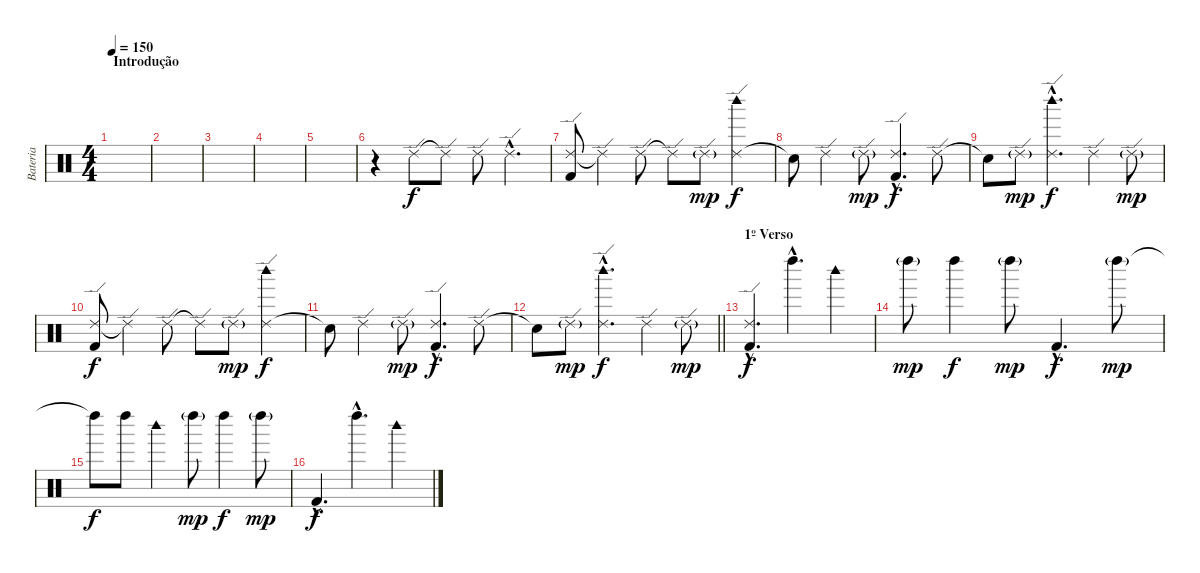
\track ("Bateria" "Bateria") {instrument percussion}
\staff {score}
\articulation defaults
\ts (4 4)
\section ("" "Introdução")
\tempo 150
\clef neutral
\ks c
|
|
|
|
|
r.4 "Ride (edge) 2".8 "Ride (edge) 2"{t}.8 "Ride (edge) 2".8 "Ride (edge) 2"{hac}.4{d} |
("Ride (edge) 2" "Kick (hit) 2").8 "Ride (edge) 2"{t}.4 "Ride (edge) 2".8 "Ride (edge) 2"{t}.8 "Ride (edge) 2"{g}.8{dy mp} ("Ride (edge) 2" "Woodblock high (hit)").4{dy f} |
"Snare (hit)"{t}.8 "Ride (edge) 2".4 "Ride (edge) 2"{g}.8{dy mp} ("Ride (edge) 2"{hac} "Kick (hit) 2"{hac}).4{d dy f} "Ride (edge) 2".8 |
"Snare (hit)"{t}.8 "Ride (edge) 2"{g}.8{dy mp} ("Ride (edge) 2"{hac} "Woodblock high (hit)"{hac}).4{d dy f} "Ride (edge) 2".4 "Ride (edge) 2"{g}.8{dy mp} |
("Ride (edge) 2" "Kick (hit) 2").8{dy f} "Ride (edge) 2"{t}.4 "Ride (edge) 2".8 "Ride (edge) 2"{t}.8 "Ride (edge) 2"{g}.8{dy mp} ("Ride (edge) 2" "Woodblock high (hit)").4{dy f} |
"Snare (hit)"{t}.8 "Ride (edge) 2".4 "Ride (edge) 2"{g}.8{dy mp} ("Ride (edge) 2"{hac} "Kick (hit) 2"{hac}).4{d dy f} "Ride (edge) 2".8 |
\barLineRight lightlight "Snare (hit)"{t}.8 "Ride (edge) 2"{g}.8{dy mp}
("Ride (edge) 2"{hac} "Woodblock high (hit)"{hac}).4{d dy f} "Ride (edge) 2".4 "Ride (edge) 2"{g}.8{dy mp} |
\section ("" "1º Verso")
("Ride (edge) 2"{hac} "Kick (hit) 2"{hac}).4{d dy f} "Left Maraca (hit)"{hac}.4{d} "Woodblock high (hit)".4 |
"Left Maraca (hit)"{g}.8{dy mp} "Left Maraca (hit)".4{dy f} "Left Maraca (hit)"{g}.8{dy mp} "Kick (hit) 2"{hac}.4{d dy f} "Left Maraca (hit)"{g}.8{dy mp} |
"Left Maraca (hit)"{t}.8{dy f} "Left Maraca (hit)".8 "Woodblock high (hit)".4 "Left Maraca (hit)"{g}.8{dy mp} "Left Maraca (hit)".4{dy f} "Left Maraca (hit)"{g}.8{dy mp} |
"Kick (hit) 2"{hac}.4{d dy f} "Left Maraca (hit)"{hac}.4{d} "Woodblock high (hit)".4
